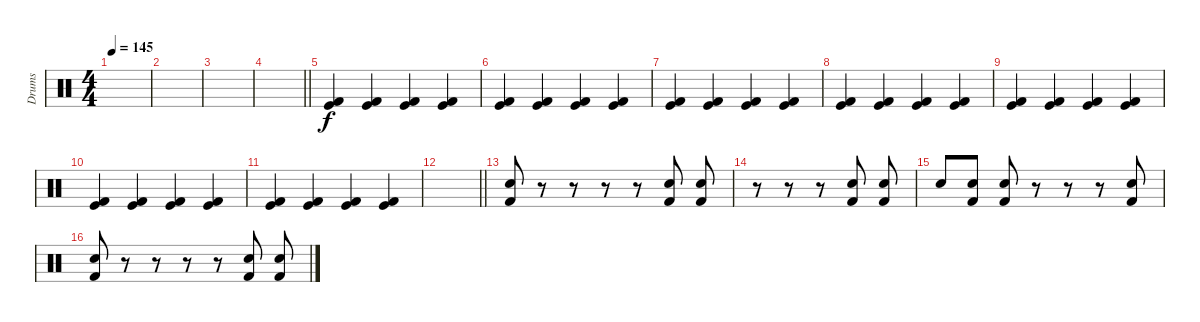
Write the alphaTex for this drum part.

\track ("Drums" "Drums") {instrument percussion}
\staff {score}
\articulation defaults
\ts (4 4)
\tempo 145
\clef neutral
\ks c
|
|
|
\barLineRight lightlight
|
("Kick (hit)" "Kick (hit) 2").4 ("Kick (hit)" "Kick (hit) 2").4 ("Kick (hit)" "Kick (hit) 2").4 ("Kick (hit)" "Kick (hit) 2").4 |
("Kick (hit)" "Kick (hit) 2").4 ("Kick (hit)" "Kick (hit) 2").4 ("Kick (hit)" "Kick (hit) 2").4 ("Kick (hit)" "Kick (hit) 2").4 |
("Kick (hit)" "Kick (hit) 2").4 ("Kick (hit)" "Kick (hit) 2").4 ("Kick (hit)" "Kick (hit) 2").4 ("Kick (hit)" "Kick (hit) 2").4 |
("Kick (hit)" "Kick (hit) 2").4 ("Kick (hit)" "Kick (hit) 2").4 ("Kick (hit)" "Kick (hit) 2").4 ("Kick (hit)" "Kick (hit) 2").4 |
("Kick (hit)" "Kick (hit) 2").4 ("Kick (hit)" "Kick (hit) 2").4 ("Kick (hit)" "Kick (hit) 2").4 ("Kick (hit)" "Kick (hit) 2").4 |
("Kick (hit)" "Kick (hit) 2").4 ("Kick (hit)" "Kick (hit) 2").4 ("Kick (hit)" "Kick (hit) 2").4 ("Kick (hit)" "Kick (hit) 2").4 |
("Kick (hit)" "Kick (hit) 2").4 ("Kick (hit)" "Kick (hit) 2").4 ("Kick (hit)" "Kick (hit) 2").4 ("Kick (hit)" "Kick (hit) 2").4 |
\barLineRight lightlight
|
("Kick (hit) 2" "Electric Snare (hit)").8 r.8 r.8 r.8 r.8 ("Kick (hit) 2" "Electric Snare (hit)").8 ("Kick (hit) 2" "Electric Snare (hit)").8 |
r.8 r.8 r.8 ("Kick (hit) 2" "Electric Snare (hit)").8 ("Kick (hit) 2" "Electric Snare (hit)").8 |
"Snare (hit)".8 ("Kick (hit) 2" "Electric Snare (hit)").8 ("Kick (hit) 2" "Electric Snare (hit)").8 r.8 r.8 r.8 ("Electric Snare (hit)" "Kick (hit) 2").8 |
("Kick (hit) 2" "Electric Snare (hit)").8 r.8 r.8 r.8 r.8 ("Kick (hit) 2" "Electric Snare (hit)").8 ("Kick (hit) 2" "Electric Snare (hit)").8
